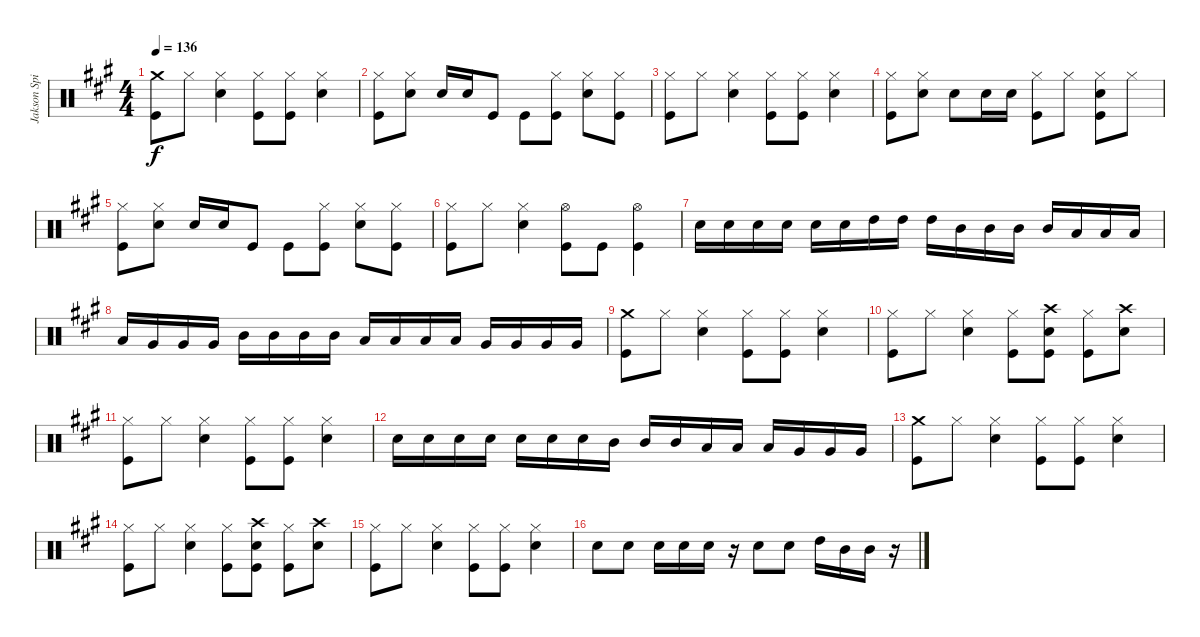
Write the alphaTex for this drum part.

\track ("Jakson Spires Drums" "Jakson Spi") {instrument percussion}
\staff {score}
\articulation defaults
\ts (4 4)
\tempo 136
\clef neutral
\ks a
("Crash medium (hit)" "Kick (hit)").8{dy f} "Hi-Hat (closed)".8 ("Hi-Hat (closed)" "Snare (hit) 2").4 ("Hi-Hat (closed)" "Kick (hit)").8 ("Hi-Hat (closed)" "Kick (hit)").8 ("Hi-Hat (closed)" "Snare (hit) 2").4 |
("Hi-Hat (closed)" "Kick (hit)").8 ("Hi-Hat (closed)" "Snare (hit) 2").8 "Snare (hit) 2".16 "Snare (hit) 2".16 "Kick (hit)".8 "Kick (hit)".8 ("Hi-Hat (closed)" "Kick (hit)").8 ("Hi-Hat (closed)" "Snare (hit) 2").8 ("Hi-Hat (closed)" "Kick (hit)").8 |
("Hi-Hat (closed)" "Kick (hit)").8 "Hi-Hat (closed)".8 ("Hi-Hat (closed)" "Snare (hit) 2").4 ("Hi-Hat (closed)" "Kick (hit)").8 ("Hi-Hat (closed)" "Kick (hit)").8 ("Hi-Hat (closed)" "Snare (hit) 2").4 |
("Hi-Hat (closed)" "Kick (hit)").8 ("Hi-Hat (closed)" "Snare (hit) 2").8 "Snare (hit) 2".8 "Snare (hit) 2".16 "Snare (hit) 2".16 ("Hi-Hat (closed)" "Kick (hit)").8 "Hi-Hat (closed)".8 ("Hi-Hat (closed)" "Snare (hit) 2" "Kick (hit)").8 "Hi-Hat (closed)".8 |
("Hi-Hat (closed)" "Kick (hit)").8 ("Hi-Hat (closed)" "Snare (hit) 2").8 "Snare (hit) 2".16 "Snare (hit) 2".16 "Kick (hit)".8 "Kick (hit)".8 ("Hi-Hat (closed)" "Kick (hit)").8 ("Hi-Hat (closed)" "Snare (hit) 2").8 ("Hi-Hat (closed)" "Kick (hit)").8 |
("Hi-Hat (closed)" "Kick (hit)").8 "Hi-Hat (closed)".8 ("Hi-Hat (closed)" "Snare (hit) 2").4 ("Hi-Hat (open)" "Kick (hit)").8 "Kick (hit)".8 ("Hi-Hat (open)" "Kick (hit)").4 |
"Snare (hit) 2".16 "Snare (hit) 2".16 "Snare (hit) 2".16 "Snare (hit) 2".16 "Snare (hit) 2".16 "Snare (hit) 2".16 "High Tom (hit)".16 "High Tom (hit)".16 "High Tom (hit)".16 "Mid Tom (hit)".16 "Mid Tom (hit)".16 "Mid Tom (hit)".16 "Mid Tom (hit)".16 "Low Tom (hit)".16 "Low Tom (hit)".16 "Low Tom (hit)".16 |
"Low Tom (hit)".16 "Very Low Tom (hit)".16 "Very Low Tom (hit)".16 "Very Low Tom (hit)".16 "Mid Tom (hit)".16 "Mid Tom (hit)".16 "Mid Tom (hit)".16 "Mid Tom (hit)".16 "Low Tom (hit)".16 "Low Tom (hit)".16 "Low Tom (hit)".16 "Low Tom (hit)".16 "Very Low Tom (hit)".16 "Very Low Tom (hit)".16 "Very Low Tom (hit)".16 "Very Low Tom (hit)".16 |
("Crash medium (hit)" "Kick (hit)").8 "Hi-Hat (closed)".8 ("Hi-Hat (closed)" "Snare (hit) 2").4 ("Hi-Hat (closed)" "Kick (hit)").8 ("Hi-Hat (closed)" "Kick (hit)").8 ("Hi-Hat (closed)" "Snare (hit) 2").4 |
("Hi-Hat (closed)" "Kick (hit)").8 "Hi-Hat (closed)".8 ("Hi-Hat (closed)" "Snare (hit) 2").4 ("Hi-Hat (closed)" "Kick (hit)").8 ("Crash high (hit)" "Snare (hit) 2" "Kick (hit)").8 ("Hi-Hat (closed)" "Kick (hit)").8 ("Crash high (hit)" "Snare (hit) 2").8 |
("Hi-Hat (closed)" "Kick (hit)").8 "Hi-Hat (closed)".8 ("Hi-Hat (closed)" "Snare (hit) 2").4 ("Hi-Hat (closed)" "Kick (hit)").8 ("Hi-Hat (closed)" "Kick (hit)").8 ("Hi-Hat (closed)" "Snare (hit) 2").4 |
"Snare (hit) 2".16 "Snare (hit) 2".16 "Snare (hit) 2".16 "Snare (hit) 2".16 "Snare (hit) 2".16 "Snare (hit) 2".16 "Snare (hit) 2".16 "Mid Tom (hit)".16 "Mid Tom (hit)".16 "Mid Tom (hit)".16 "Low Tom (hit)".16 "Low Tom (hit)".16 "Low Tom (hit)".16 "Very Low Tom (hit)".16 "Very Low Tom (hit)".16 "Very Low Tom (hit)".16 |
("Crash medium (hit)" "Kick (hit)").8 "Hi-Hat (closed)".8 ("Hi-Hat (closed)" "Snare (hit) 2").4 ("Hi-Hat (closed)" "Kick (hit)").8 ("Hi-Hat (closed)" "Kick (hit)").8 ("Hi-Hat (closed)" "Snare (hit) 2").4 |
("Hi-Hat (closed)" "Kick (hit)").8 "Hi-Hat (closed)".8 ("Hi-Hat (closed)" "Snare (hit) 2").4 ("Hi-Hat (closed)" "Kick (hit)").8 ("Crash high (hit)" "Snare (hit) 2" "Kick (hit)").8 ("Hi-Hat (closed)" "Kick (hit)").8 ("Crash high (hit)" "Snare (hit) 2").8 |
("Hi-Hat (closed)" "Kick (hit)").8 "Hi-Hat (closed)".8 ("Hi-Hat (closed)" "Snare (hit) 2").4 ("Hi-Hat (closed)" "Kick (hit)").8 ("Hi-Hat (closed)" "Kick (hit)").8 ("Hi-Hat (closed)" "Snare (hit) 2").4 |
"Snare (hit) 2".8 "Snare (hit) 2".8 "Snare (hit) 2".16 "Snare (hit) 2".16 "Snare (hit) 2".16 r.16 "Snare (hit) 2".8 "Snare (hit) 2".8 "High Tom (hit)".16 "Mid Tom (hit)".16 "Mid Tom (hit)".16 r.16
